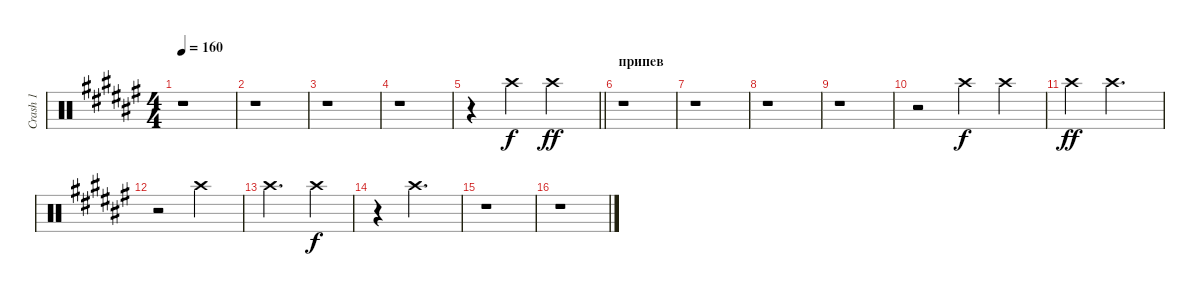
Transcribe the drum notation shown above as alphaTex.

\track ("Crash 1" "Crash 1") {instrument percussion}
\staff {score}
\articulation defaults
\ts (4 4)
\tempo 160
\clef neutral
\ks d#minor
r.1{dy ff} |
r.1 |
r.1 |
r.1 |
\barLineRight lightlight
r.4 "Crash high (hit)".4{dy f} "Crash high (hit)".2{dy ff} |
\section ("" "припев")
r.1 |
r.1 |
r.1 |
r.1 |
r.2 "Crash high (hit)".4{dy f} "Crash high (hit)".4 |
"Crash high (hit)".4{dy ff} "Crash high (hit)".2{d} |
r.2 "Crash high (hit)".2 |
"Crash high (hit)".2{d} "Crash high (hit)".4{dy f} |
r.4 "Crash high (hit)".2{d} |
r.1 |
r.1
